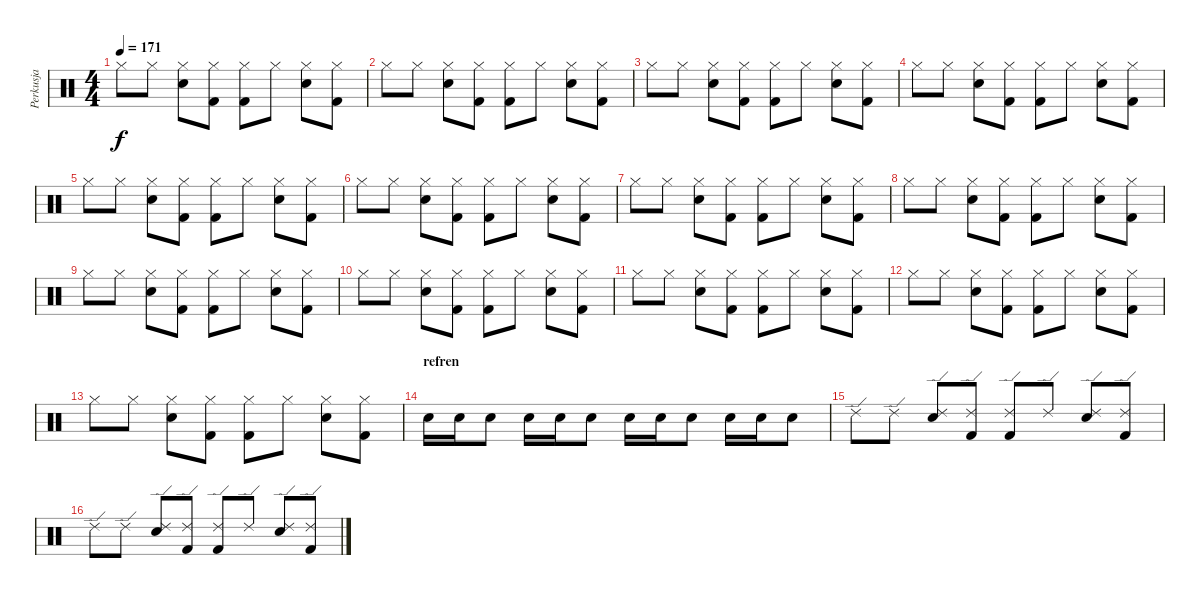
\track ("Perkusja" "Perkusja") {instrument percussion}
\staff {score}
\articulation defaults
\ts (4 4)
\tempo 171
\clef neutral
\ks c "Hi-Hat (closed)".8{dy f} "Hi-Hat (closed)".8
("Hi-Hat (closed)" "Snare (hit) 2").8 ("Hi-Hat (closed)" "Kick (hit) 2").8 ("Hi-Hat (closed)" "Kick (hit) 2").8 "Hi-Hat (closed)".8 ("Hi-Hat (closed)" "Snare (hit) 2").8 ("Hi-Hat (closed)" "Kick (hit) 2").8 |
"Hi-Hat (closed)".8 "Hi-Hat (closed)".8 ("Hi-Hat (closed)" "Snare (hit) 2").8 ("Hi-Hat (closed)" "Kick (hit) 2").8 ("Hi-Hat (closed)" "Kick (hit) 2").8 "Hi-Hat (closed)".8 ("Hi-Hat (closed)" "Snare (hit) 2").8 ("Hi-Hat (closed)" "Kick (hit) 2").8 |
"Hi-Hat (closed)".8 "Hi-Hat (closed)".8 ("Hi-Hat (closed)" "Snare (hit) 2").8 ("Hi-Hat (closed)" "Kick (hit) 2").8 ("Hi-Hat (closed)" "Kick (hit) 2").8 "Hi-Hat (closed)".8 ("Hi-Hat (closed)" "Snare (hit) 2").8 ("Hi-Hat (closed)" "Kick (hit) 2").8 |
"Hi-Hat (closed)".8 "Hi-Hat (closed)".8 ("Hi-Hat (closed)" "Snare (hit) 2").8 ("Hi-Hat (closed)" "Kick (hit) 2").8 ("Hi-Hat (closed)" "Kick (hit) 2").8 "Hi-Hat (closed)".8 ("Hi-Hat (closed)" "Snare (hit) 2").8 ("Hi-Hat (closed)" "Kick (hit) 2").8 |
"Hi-Hat (closed)".8 "Hi-Hat (closed)".8 ("Hi-Hat (closed)" "Snare (hit) 2").8 ("Hi-Hat (closed)" "Kick (hit) 2").8 ("Hi-Hat (closed)" "Kick (hit) 2").8 "Hi-Hat (closed)".8 ("Hi-Hat (closed)" "Snare (hit) 2").8 ("Hi-Hat (closed)" "Kick (hit) 2").8 |
"Hi-Hat (closed)".8 "Hi-Hat (closed)".8 ("Hi-Hat (closed)" "Snare (hit) 2").8 ("Hi-Hat (closed)" "Kick (hit) 2").8 ("Hi-Hat (closed)" "Kick (hit) 2").8 "Hi-Hat (closed)".8 ("Hi-Hat (closed)" "Snare (hit) 2").8 ("Hi-Hat (closed)" "Kick (hit) 2").8 |
"Hi-Hat (closed)".8 "Hi-Hat (closed)".8 ("Hi-Hat (closed)" "Snare (hit) 2").8 ("Hi-Hat (closed)" "Kick (hit) 2").8 ("Hi-Hat (closed)" "Kick (hit) 2").8 "Hi-Hat (closed)".8 ("Hi-Hat (closed)" "Snare (hit) 2").8 ("Hi-Hat (closed)" "Kick (hit) 2").8 |
"Hi-Hat (closed)".8 "Hi-Hat (closed)".8 ("Hi-Hat (closed)" "Snare (hit) 2").8 ("Hi-Hat (closed)" "Kick (hit) 2").8 ("Hi-Hat (closed)" "Kick (hit) 2").8 "Hi-Hat (closed)".8 ("Hi-Hat (closed)" "Snare (hit) 2").8 ("Hi-Hat (closed)" "Kick (hit) 2").8 |
"Hi-Hat (closed)".8 "Hi-Hat (closed)".8 ("Hi-Hat (closed)" "Snare (hit) 2").8 ("Hi-Hat (closed)" "Kick (hit) 2").8 ("Hi-Hat (closed)" "Kick (hit) 2").8 "Hi-Hat (closed)".8 ("Hi-Hat (closed)" "Snare (hit) 2").8 ("Hi-Hat (closed)" "Kick (hit) 2").8 |
"Hi-Hat (closed)".8 "Hi-Hat (closed)".8 ("Hi-Hat (closed)" "Snare (hit) 2").8 ("Hi-Hat (closed)" "Kick (hit) 2").8 ("Hi-Hat (closed)" "Kick (hit) 2").8 "Hi-Hat (closed)".8 ("Hi-Hat (closed)" "Snare (hit) 2").8 ("Hi-Hat (closed)" "Kick (hit) 2").8 |
"Hi-Hat (closed)".8 "Hi-Hat (closed)".8 ("Hi-Hat (closed)" "Snare (hit) 2").8 ("Hi-Hat (closed)" "Kick (hit) 2").8 ("Hi-Hat (closed)" "Kick (hit) 2").8 "Hi-Hat (closed)".8 ("Hi-Hat (closed)" "Snare (hit) 2").8 ("Hi-Hat (closed)" "Kick (hit) 2").8 |
"Hi-Hat (closed)".8 "Hi-Hat (closed)".8 ("Hi-Hat (closed)" "Snare (hit) 2").8 ("Hi-Hat (closed)" "Kick (hit) 2").8 ("Hi-Hat (closed)" "Kick (hit) 2").8 "Hi-Hat (closed)".8 ("Hi-Hat (closed)" "Snare (hit) 2").8 ("Hi-Hat (closed)" "Kick (hit) 2").8 |
"Hi-Hat (closed)".8 "Hi-Hat (closed)".8 ("Hi-Hat (closed)" "Snare (hit) 2").8 ("Hi-Hat (closed)" "Kick (hit) 2").8 ("Hi-Hat (closed)" "Kick (hit) 2").8 "Hi-Hat (closed)".8 ("Hi-Hat (closed)" "Snare (hit) 2").8 ("Hi-Hat (closed)" "Kick (hit) 2").8 |
\section ("" "refren")
"Snare (hit) 2".16 "Snare (hit) 2".16 "Snare (hit) 2".8 "Snare (hit) 2".16 "Snare (hit) 2".16 "Snare (hit) 2".8 "Snare (hit) 2".16 "Snare (hit) 2".16 "Snare (hit) 2".8 "Snare (hit) 2".16 "Snare (hit) 2".16 "Snare (hit) 2".8 |
"Ride (edge) 2".8 "Ride (edge) 2".8 ("Ride (edge) 2" "Snare (hit) 2").8 ("Ride (edge) 2" "Kick (hit) 2").8 ("Ride (edge) 2" "Kick (hit) 2").8 "Ride (edge) 2".8 ("Ride (edge) 2" "Snare (hit) 2").8 ("Ride (edge) 2" "Kick (hit) 2").8 |
"Ride (edge) 2".8 "Ride (edge) 2".8 ("Ride (edge) 2" "Snare (hit) 2").8 ("Ride (edge) 2" "Kick (hit) 2").8 ("Ride (edge) 2" "Kick (hit) 2").8 "Ride (edge) 2".8 ("Ride (edge) 2" "Snare (hit) 2").8 ("Ride (edge) 2" "Kick (hit) 2").8
